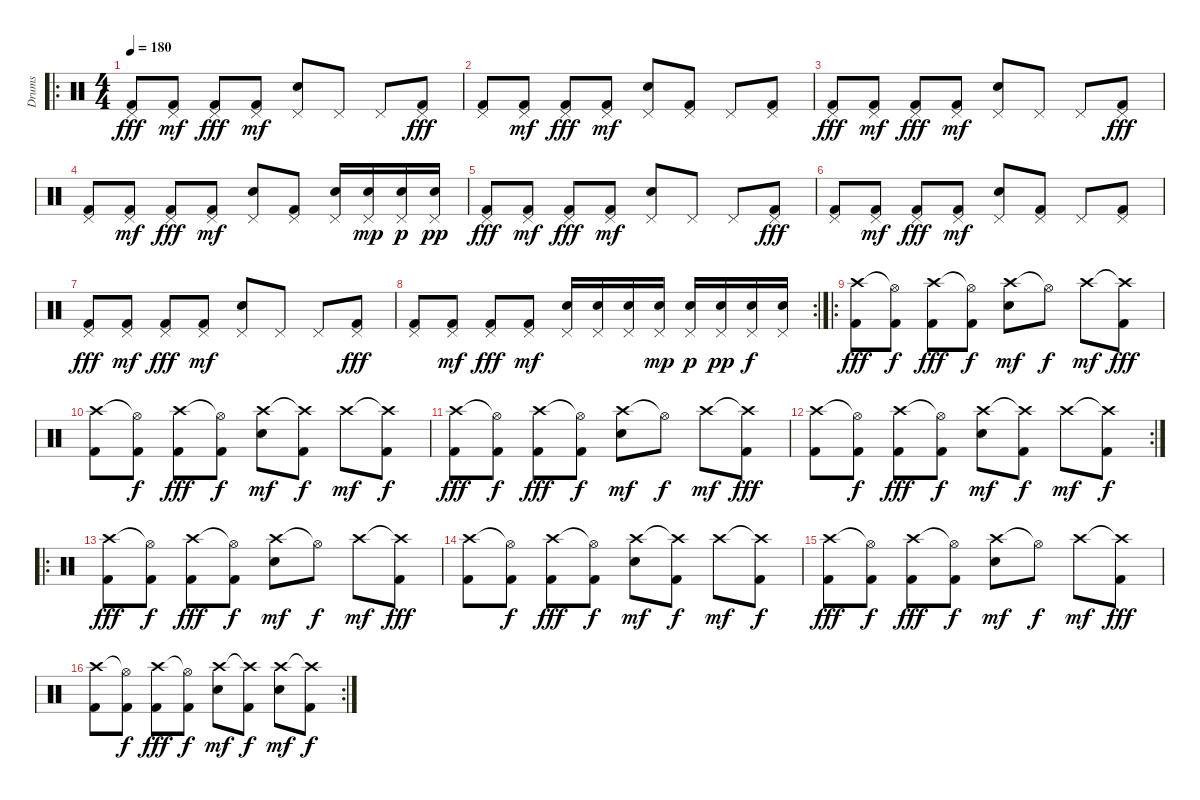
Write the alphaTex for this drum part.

\track ("Drums" "Drums") {instrument percussion}
\staff {score}
\articulation defaults
\ro
\ts (4 4)
\tempo 180
\clef neutral
\ks c
("Pedal Hi-Hat (hit)" "Kick (hit) 2").8{dy fff} ("Pedal Hi-Hat (hit)" "Kick (hit) 2").8{dy mf} ("Pedal Hi-Hat (hit)" "Kick (hit) 2").8{dy fff} ("Pedal Hi-Hat (hit)" "Kick (hit) 2").8{dy mf} ("Pedal Hi-Hat (hit)" "Electric Snare (hit)").8 "Pedal Hi-Hat (hit)".8 "Pedal Hi-Hat (hit)".8 ("Pedal Hi-Hat (hit)" "Kick (hit) 2").8{dy fff} |
("Pedal Hi-Hat (hit)" "Kick (hit) 2").8 ("Pedal Hi-Hat (hit)" "Kick (hit) 2").8{dy mf} ("Pedal Hi-Hat (hit)" "Kick (hit) 2").8{dy fff} ("Pedal Hi-Hat (hit)" "Kick (hit) 2").8{dy mf} ("Pedal Hi-Hat (hit)" "Electric Snare (hit)").8 ("Pedal Hi-Hat (hit)" "Kick (hit) 2").8 "Pedal Hi-Hat (hit)".8 ("Pedal Hi-Hat (hit)" "Kick (hit) 2").8 |
("Pedal Hi-Hat (hit)" "Kick (hit) 2").8{dy fff} ("Pedal Hi-Hat (hit)" "Kick (hit) 2").8{dy mf} ("Pedal Hi-Hat (hit)" "Kick (hit) 2").8{dy fff} ("Pedal Hi-Hat (hit)" "Kick (hit) 2").8{dy mf} ("Pedal Hi-Hat (hit)" "Electric Snare (hit)").8 "Pedal Hi-Hat (hit)".8 "Pedal Hi-Hat (hit)".8 ("Pedal Hi-Hat (hit)" "Kick (hit) 2").8{dy fff} |
("Pedal Hi-Hat (hit)" "Kick (hit) 2").8 ("Pedal Hi-Hat (hit)" "Kick (hit) 2").8{dy mf} ("Pedal Hi-Hat (hit)" "Kick (hit) 2").8{dy fff} ("Pedal Hi-Hat (hit)" "Kick (hit) 2").8{dy mf} ("Pedal Hi-Hat (hit)" "Electric Snare (hit)").8 ("Pedal Hi-Hat (hit)" "Kick (hit) 2").8 ("Pedal Hi-Hat (hit)" "Electric Snare (hit)").16 ("Pedal Hi-Hat (hit)" "Electric Snare (hit)").16{dy mp} ("Pedal Hi-Hat (hit)" "Electric Snare (hit)").16{dy p} ("Pedal Hi-Hat (hit)" "Electric Snare (hit)").16{dy pp} |
("Pedal Hi-Hat (hit)" "Kick (hit) 2").8{dy fff} ("Pedal Hi-Hat (hit)" "Kick (hit) 2").8{dy mf} ("Pedal Hi-Hat (hit)" "Kick (hit) 2").8{dy fff} ("Pedal Hi-Hat (hit)" "Kick (hit) 2").8{dy mf} ("Pedal Hi-Hat (hit)" "Electric Snare (hit)").8 "Pedal Hi-Hat (hit)".8 "Pedal Hi-Hat (hit)".8 ("Pedal Hi-Hat (hit)" "Kick (hit) 2").8{dy fff} |
("Pedal Hi-Hat (hit)" "Kick (hit) 2").8 ("Pedal Hi-Hat (hit)" "Kick (hit) 2").8{dy mf} ("Pedal Hi-Hat (hit)" "Kick (hit) 2").8{dy fff} ("Pedal Hi-Hat (hit)" "Kick (hit) 2").8{dy mf} ("Pedal Hi-Hat (hit)" "Electric Snare (hit)").8 ("Pedal Hi-Hat (hit)" "Kick (hit) 2").8 "Pedal Hi-Hat (hit)".8 ("Pedal Hi-Hat (hit)" "Kick (hit) 2").8 |
("Pedal Hi-Hat (hit)" "Kick (hit) 2").8{dy fff} ("Pedal Hi-Hat (hit)" "Kick (hit) 2").8{dy mf} ("Pedal Hi-Hat (hit)" "Kick (hit) 2").8{dy fff} ("Pedal Hi-Hat (hit)" "Kick (hit) 2").8{dy mf} ("Pedal Hi-Hat (hit)" "Electric Snare (hit)").8 "Pedal Hi-Hat (hit)".8 "Pedal Hi-Hat (hit)".8 ("Pedal Hi-Hat (hit)" "Kick (hit) 2").8{dy fff} |
\rc 2
("Pedal Hi-Hat (hit)" "Kick (hit) 2").8 ("Pedal Hi-Hat (hit)" "Kick (hit) 2").8{dy mf} ("Pedal Hi-Hat (hit)" "Kick (hit) 2").8{dy fff} ("Pedal Hi-Hat (hit)" "Kick (hit) 2").8{dy mf} ("Pedal Hi-Hat (hit)" "Electric Snare (hit)").16 ("Pedal Hi-Hat (hit)" "Electric Snare (hit)").16 ("Pedal Hi-Hat (hit)" "Electric Snare (hit)").16 ("Pedal Hi-Hat (hit)" "Electric Snare (hit)").16{dy mp} ("Pedal Hi-Hat (hit)" "Electric Snare (hit)").16{dy p} ("Pedal Hi-Hat (hit)" "Electric Snare (hit)").16{dy pp} ("Pedal Hi-Hat (hit)" "Electric Snare (hit)").16{dy f} ("Pedal Hi-Hat (hit)" "Electric Snare (hit)").16 |
\ro
("Crash high (hit)" "Kick (hit) 2").8{dy fff} ("Hi-Hat (open)"{t} "Kick (hit) 2").8{dy f} ("Crash high (hit)" "Kick (hit) 2").8{dy fff} ("Hi-Hat (open)"{t} "Kick (hit) 2").8{dy f} ("Crash high (hit)" "Electric Snare (hit)").8{dy mf} "Hi-Hat (open)"{t}.8{dy f} "Crash high (hit)".8{dy mf} ("Crash high (hit)"{t} "Kick (hit) 2").8{dy fff} |
("Crash high (hit)" "Kick (hit) 2").8 ("Hi-Hat (open)"{t} "Kick (hit) 2").8{dy f} ("Crash high (hit)" "Kick (hit) 2").8{dy fff} ("Hi-Hat (open)"{t} "Kick (hit) 2").8{dy f} ("Crash high (hit)" "Electric Snare (hit)").8{dy mf} ("Crash high (hit)"{t} "Kick (hit) 2").8{dy f} "Crash high (hit)".8{dy mf} ("Crash high (hit)"{t} "Kick (hit) 2").8{dy f} |
("Crash high (hit)" "Kick (hit) 2").8{dy fff} ("Hi-Hat (open)"{t} "Kick (hit) 2").8{dy f} ("Crash high (hit)" "Kick (hit) 2").8{dy fff} ("Hi-Hat (open)"{t} "Kick (hit) 2").8{dy f} ("Crash high (hit)" "Electric Snare (hit)").8{dy mf} "Hi-Hat (open)"{t}.8{dy f} "Crash high (hit)".8{dy mf} ("Crash high (hit)"{t} "Kick (hit) 2").8{dy fff} |
\rc 2
("Crash high (hit)" "Kick (hit) 2").8 ("Hi-Hat (open)"{t} "Kick (hit) 2").8{dy f} ("Crash high (hit)" "Kick (hit) 2").8{dy fff} ("Hi-Hat (open)"{t} "Kick (hit) 2").8{dy f} ("Crash high (hit)" "Electric Snare (hit)").8{dy mf} ("Crash high (hit)"{t} "Kick (hit) 2").8{dy f} "Crash high (hit)".8{dy mf} ("Crash high (hit)"{t} "Kick (hit) 2").8{dy f} |
\ro
("Crash high (hit)" "Kick (hit) 2").8{dy fff} ("Hi-Hat (open)"{t} "Kick (hit) 2").8{dy f} ("Crash high (hit)" "Kick (hit) 2").8{dy fff} ("Hi-Hat (open)"{t} "Kick (hit) 2").8{dy f} ("Crash high (hit)" "Electric Snare (hit)").8{dy mf} "Hi-Hat (open)"{t}.8{dy f} "Crash high (hit)".8{dy mf} ("Crash high (hit)"{t} "Kick (hit) 2").8{dy fff} |
("Crash high (hit)" "Kick (hit) 2").8 ("Hi-Hat (open)"{t} "Kick (hit) 2").8{dy f} ("Crash high (hit)" "Kick (hit) 2").8{dy fff} ("Hi-Hat (open)"{t} "Kick (hit) 2").8{dy f} ("Crash high (hit)" "Electric Snare (hit)").8{dy mf} ("Crash high (hit)"{t} "Kick (hit) 2").8{dy f} "Crash high (hit)".8{dy mf} ("Crash high (hit)"{t} "Kick (hit) 2").8{dy f} |
("Crash high (hit)" "Kick (hit) 2").8{dy fff} ("Hi-Hat (open)"{t} "Kick (hit) 2").8{dy f} ("Crash high (hit)" "Kick (hit) 2").8{dy fff} ("Hi-Hat (open)"{t} "Kick (hit) 2").8{dy f} ("Crash high (hit)" "Electric Snare (hit)").8{dy mf} "Hi-Hat (open)"{t}.8{dy f} "Crash high (hit)".8{dy mf} ("Crash high (hit)"{t} "Kick (hit) 2").8{dy fff} |
\rc 2
("Crash high (hit)" "Kick (hit) 2").8 ("Hi-Hat (open)"{t} "Kick (hit) 2").8{dy f} ("Crash high (hit)" "Kick (hit) 2").8{dy fff} ("Hi-Hat (open)"{t} "Kick (hit) 2").8{dy f} ("Crash high (hit)" "Electric Snare (hit)").8{dy mf} ("Crash high (hit)"{t} "Kick (hit) 2").8{dy f} ("Crash high (hit)" "Electric Snare (hit)").8{dy mf} ("Crash high (hit)"{t} "Kick (hit) 2").8{dy f}
